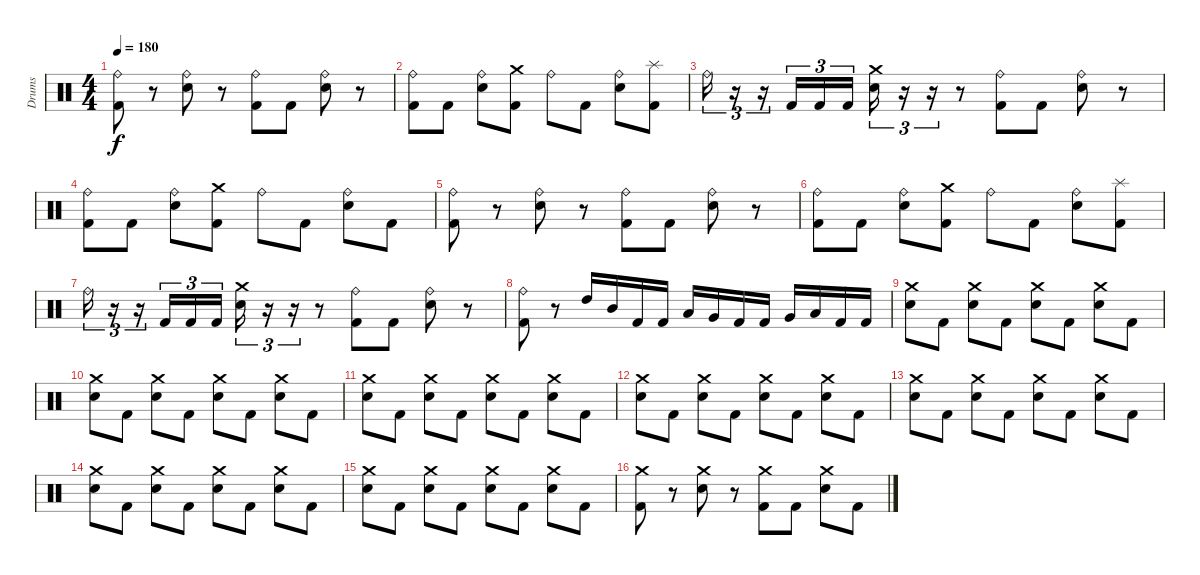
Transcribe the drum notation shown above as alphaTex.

\track ("Drums" "Drums") {instrument percussion}
\staff {score}
\articulation defaults
\ts (4 4)
\tempo 180
\clef neutral
\ks c
("Ride (bell)" "Kick (hit) 2").8{dy f} r.8 ("Ride (bell)" "Electric Snare (hit)").8 r.8 ("Ride (bell)" "Kick (hit) 2").8 "Kick (hit) 2".8 ("Ride (bell)" "Electric Snare (hit)").8 r.8 |
("Ride (bell)" "Kick (hit) 2").8 "Kick (hit) 2".8 ("Ride (bell)" "Electric Snare (hit)").8 ("Crash medium (hit)" "Kick (hit) 2").8 "Ride (bell)".8 "Kick (hit) 2".8 ("Ride (bell)" "Electric Snare (hit)").8 ("Splash (hit)" "Kick (hit) 2").8 |
"Ride (bell)".16{tu (3 2)} r.16{tu (3 2)} r.16{tu (3 2)} "Kick (hit) 2".16{tu (3 2)} "Kick (hit) 2".16{tu (3 2)} "Kick (hit) 2".16{tu (3 2)} ("Crash medium (hit)" "Electric Snare (hit)").16{tu (3 2)} r.16{tu (3 2)} r.16{tu (3 2)} r.8 ("Ride (bell)" "Kick (hit) 2").8 "Kick (hit) 2".8 ("Ride (bell)" "Electric Snare (hit)").8 r.8 |
("Ride (bell)" "Kick (hit) 2").8 "Kick (hit) 2".8 ("Ride (bell)" "Electric Snare (hit)").8 ("Crash medium (hit)" "Kick (hit) 2").8 "Ride (bell)".8 "Kick (hit) 2".8 ("Ride (bell)" "Electric Snare (hit)").8 "Kick (hit) 2".8 |
("Ride (bell)" "Kick (hit) 2").8 r.8 ("Ride (bell)" "Electric Snare (hit)").8 r.8 ("Ride (bell)" "Kick (hit) 2").8 "Kick (hit) 2".8 ("Ride (bell)" "Electric Snare (hit)").8 r.8 |
("Ride (bell)" "Kick (hit) 2").8 "Kick (hit) 2".8 ("Ride (bell)" "Electric Snare (hit)").8 ("Crash medium (hit)" "Kick (hit) 2").8 "Ride (bell)".8 "Kick (hit) 2".8 ("Ride (bell)" "Electric Snare (hit)").8 ("Splash (hit)" "Kick (hit) 2").8 |
"Ride (bell)".16{tu (3 2)} r.16{tu (3 2)} r.16{tu (3 2)} "Kick (hit) 2".16{tu (3 2)} "Kick (hit) 2".16{tu (3 2)} "Kick (hit) 2".16{tu (3 2)} ("Crash medium (hit)" "Electric Snare (hit)").16{tu (3 2)} r.16{tu (3 2)} r.16{tu (3 2)} r.8 ("Ride (bell)" "Kick (hit) 2").8 "Kick (hit) 2".8 ("Ride (bell)" "Electric Snare (hit)").8 r.8 |
("Ride (bell)" "Kick (hit) 2").8 r.8 "High Tom (hit)".16 "Mid Tom (hit)".16 "Kick (hit) 2".16 "Kick (hit) 2".16 "Low Tom (hit)".16 "Very Low Tom (hit)".16 "Kick (hit) 2".16 "Kick (hit) 2".16 "Very Low Tom (hit)".16 "Low Floor Tom (hit)".16 "Kick (hit) 2".16 "Kick (hit) 2".16 |
("Crash medium (hit)" "Electric Snare (hit)").8 "Kick (hit) 2".8 ("Crash medium (hit)" "Electric Snare (hit)").8 "Kick (hit) 2".8 ("Crash medium (hit)" "Electric Snare (hit)").8 "Kick (hit) 2".8 ("Crash medium (hit)" "Electric Snare (hit)").8 "Kick (hit) 2".8 |
("Crash medium (hit)" "Electric Snare (hit)").8 "Kick (hit) 2".8 ("Crash medium (hit)" "Electric Snare (hit)").8 "Kick (hit) 2".8 ("Crash medium (hit)" "Electric Snare (hit)").8 "Kick (hit) 2".8 ("Crash medium (hit)" "Electric Snare (hit)").8 "Kick (hit) 2".8 |
("Crash medium (hit)" "Electric Snare (hit)").8 "Kick (hit) 2".8 ("Crash medium (hit)" "Electric Snare (hit)").8 "Kick (hit) 2".8 ("Crash medium (hit)" "Electric Snare (hit)").8 "Kick (hit) 2".8 ("Crash medium (hit)" "Electric Snare (hit)").8 "Kick (hit) 2".8 |
("Crash medium (hit)" "Electric Snare (hit)").8 "Kick (hit) 2".8 ("Crash medium (hit)" "Electric Snare (hit)").8 "Kick (hit) 2".8 ("Crash medium (hit)" "Electric Snare (hit)").8 "Kick (hit) 2".8 ("Crash medium (hit)" "Electric Snare (hit)").8 "Kick (hit) 2".8 |
("Crash medium (hit)" "Electric Snare (hit)").8 "Kick (hit) 2".8 ("Crash medium (hit)" "Electric Snare (hit)").8 "Kick (hit) 2".8 ("Crash medium (hit)" "Electric Snare (hit)").8 "Kick (hit) 2".8 ("Crash medium (hit)" "Electric Snare (hit)").8 "Kick (hit) 2".8 |
("Crash medium (hit)" "Electric Snare (hit)").8 "Kick (hit) 2".8 ("Crash medium (hit)" "Electric Snare (hit)").8 "Kick (hit) 2".8 ("Crash medium (hit)" "Electric Snare (hit)").8 "Kick (hit) 2".8 ("Crash medium (hit)" "Electric Snare (hit)").8 "Kick (hit) 2".8 |
("Crash medium (hit)" "Electric Snare (hit)").8 "Kick (hit) 2".8 ("Crash medium (hit)" "Electric Snare (hit)").8 "Kick (hit) 2".8 ("Crash medium (hit)" "Electric Snare (hit)").8 "Kick (hit) 2".8 ("Crash medium (hit)" "Electric Snare (hit)").8 "Kick (hit) 2".8 |
("Crash medium (hit)" "Kick (hit) 2").8 r.8 ("Crash medium (hit)" "Electric Snare (hit)").8 r.8 ("Crash medium (hit)" "Kick (hit) 2").8 "Kick (hit) 2".8 ("Crash medium (hit)" "Electric Snare (hit)").8 "Kick (hit) 2".8
